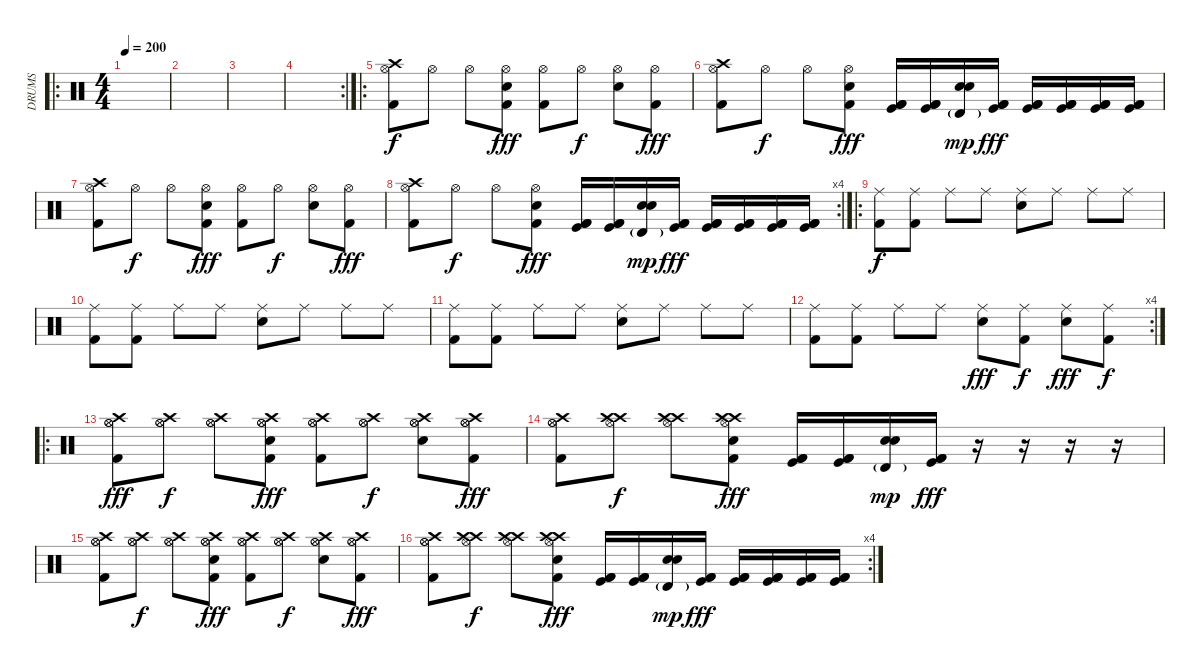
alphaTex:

\track ("DRUMS" "DRUMS") {instrument percussion}
\staff {score}
\articulation defaults
\ro
\ts (4 4)
\tempo 200
\clef neutral
\ks c
|
|
|
\rc 2
|
\ro
("Hi-Hat (open)" "Crash high (hit)" "Kick (hit) 2").8 "Hi-Hat (open)".8{dy f} "Hi-Hat (open)".8 ("Hi-Hat (open)" "Electric Snare (hit)" "Kick (hit) 2").8{dy fff} ("Hi-Hat (open)" "Kick (hit) 2").8 "Hi-Hat (open)".8{dy f} ("Hi-Hat (open)" "Electric Snare (hit)").8 ("Hi-Hat (open)" "Kick (hit) 2").8{dy fff} |
("Hi-Hat (open)" "Crash high (hit)" "Kick (hit) 2").8 "Hi-Hat (open)".8{dy f} "Hi-Hat (open)".8 ("Hi-Hat (open)" "Electric Snare (hit)" "Kick (hit) 2").8{dy fff} ("Kick (hit)" "Kick (hit) 2" "Kick (hit) 2").16 ("Kick (hit)" "Kick (hit) 2" "Kick (hit) 2").16 ("Snare (hit) 2" "Timbale high (hit)"{g} "Electric Snare (hit)").16{dy mp} ("Kick (hit)" "Kick (hit) 2" "Kick (hit) 2").16{dy fff} ("Kick (hit)" "Kick (hit) 2" "Kick (hit) 2").16 ("Kick (hit)" "Kick (hit) 2" "Kick (hit) 2").16 ("Kick (hit)" "Kick (hit) 2" "Kick (hit) 2").16 ("Kick (hit)" "Kick (hit) 2" "Kick (hit) 2").16 |
("Hi-Hat (open)" "Crash high (hit)" "Kick (hit) 2").8 "Hi-Hat (open)".8{dy f} "Hi-Hat (open)".8 ("Hi-Hat (open)" "Electric Snare (hit)" "Kick (hit) 2").8{dy fff} ("Hi-Hat (open)" "Kick (hit) 2").8 "Hi-Hat (open)".8{dy f} ("Hi-Hat (open)" "Electric Snare (hit)").8 ("Hi-Hat (open)" "Kick (hit) 2").8{dy fff} |
\rc 4
("Hi-Hat (open)" "Crash high (hit)" "Kick (hit) 2").8 "Hi-Hat (open)".8{dy f} "Hi-Hat (open)".8 ("Hi-Hat (open)" "Electric Snare (hit)" "Kick (hit) 2").8{dy fff} ("Kick (hit)" "Kick (hit) 2" "Kick (hit) 2").16 ("Kick (hit)" "Kick (hit) 2" "Kick (hit) 2").16 ("Snare (hit) 2" "Timbale high (hit)"{g} "Electric Snare (hit)").16{dy mp} ("Kick (hit)" "Kick (hit) 2" "Kick (hit) 2").16{dy fff} ("Kick (hit)" "Kick (hit) 2" "Kick (hit) 2").16 ("Kick (hit)" "Kick (hit) 2" "Kick (hit) 2").16 ("Kick (hit)" "Kick (hit) 2" "Kick (hit) 2").16 ("Kick (hit)" "Kick (hit) 2" "Kick (hit) 2").16 |
\ro
("Ride (middle)" "Kick (hit) 2").8{dy f} ("Ride (middle)" "Kick (hit) 2").8 "Ride (middle)".8 "Ride (middle)".8 ("Ride (middle)" "Snare (hit) 2").8 "Ride (middle)".8 "Ride (middle)".8 "Ride (middle)".8 |
("Ride (middle)" "Kick (hit) 2").8 ("Ride (middle)" "Kick (hit) 2").8 "Ride (middle)".8 "Ride (middle)".8 ("Ride (middle)" "Snare (hit) 2").8 "Ride (middle)".8 "Ride (middle)".8 "Ride (middle)".8 |
("Ride (middle)" "Kick (hit) 2").8 ("Ride (middle)" "Kick (hit) 2").8 "Ride (middle)".8 "Ride (middle)".8 ("Ride (middle)" "Snare (hit) 2").8 "Ride (middle)".8 "Ride (middle)".8 "Ride (middle)".8 |
\rc 4
("Ride (middle)" "Kick (hit) 2").8 ("Ride (middle)" "Kick (hit) 2").8 "Ride (middle)".8 "Ride (middle)".8 ("Ride (middle)" "Snare (hit) 2").8{dy fff} ("Ride (middle)" "Kick (hit) 2").8{dy f} ("Ride (middle)" "Snare (hit) 2").8{dy fff} ("Ride (middle)" "Kick (hit) 2").8{dy f} |
\ro
("Hi-Hat (open)" "Crash high (hit)" "Hi-Hat (open)" "Kick (hit) 2").8{dy fff} ("Hi-Hat (open)" "Crash high (hit)" "Hi-Hat (open)").8{dy f} ("Hi-Hat (open)" "Crash high (hit)" "Hi-Hat (open)").8 ("Hi-Hat (open)" "Crash high (hit)" "Hi-Hat (open)" "Electric Snare (hit)" "Kick (hit) 2").8{dy fff} ("Hi-Hat (open)" "Crash high (hit)" "Hi-Hat (open)" "Kick (hit) 2").8 ("Hi-Hat (open)" "Crash high (hit)" "Hi-Hat (open)").8{dy f} ("Hi-Hat (open)" "Crash high (hit)" "Hi-Hat (open)" "Electric Snare (hit)").8 ("Hi-Hat (open)" "Crash high (hit)" "Hi-Hat (open)" "Kick (hit) 2").8{dy fff} |
("Hi-Hat (open)" "Crash high (hit)" "Hi-Hat (open)" "Kick (hit) 2").8 ("Hi-Hat (open)" "Crash high (hit)" "Crash high (hit)").8{dy f} ("Hi-Hat (open)" "Crash high (hit)" "Crash high (hit)").8 ("Hi-Hat (open)" "Crash high (hit)" "Crash high (hit)" "Electric Snare (hit)" "Kick (hit) 2").8{dy fff} ("Kick (hit)" "Kick (hit) 2" "Kick (hit) 2").16 ("Kick (hit)" "Kick (hit) 2" "Kick (hit) 2").16 ("Snare (hit) 2" "Timbale high (hit)"{g} "Electric Snare (hit)").16{dy mp} ("Kick (hit)" "Kick (hit) 2" "Kick (hit) 2").16{dy fff} r.16 r.16 r.16 r.16 |
("Hi-Hat (open)" "Crash high (hit)" "Hi-Hat (open)" "Kick (hit) 2").8 ("Hi-Hat (open)" "Crash high (hit)" "Hi-Hat (open)").8{dy f} ("Hi-Hat (open)" "Crash high (hit)" "Hi-Hat (open)").8 ("Hi-Hat (open)" "Crash high (hit)" "Hi-Hat (open)" "Electric Snare (hit)" "Kick (hit) 2").8{dy fff} ("Hi-Hat (open)" "Crash high (hit)" "Hi-Hat (open)" "Kick (hit) 2").8 ("Hi-Hat (open)" "Crash high (hit)" "Hi-Hat (open)").8{dy f} ("Hi-Hat (open)" "Crash high (hit)" "Hi-Hat (open)" "Electric Snare (hit)").8 ("Hi-Hat (open)" "Crash high (hit)" "Hi-Hat (open)" "Kick (hit) 2").8{dy fff} |
\rc 4
("Hi-Hat (open)" "Crash high (hit)" "Hi-Hat (open)" "Kick (hit) 2").8 ("Hi-Hat (open)" "Crash high (hit)" "Crash high (hit)").8{dy f} ("Hi-Hat (open)" "Crash high (hit)" "Crash high (hit)").8 ("Hi-Hat (open)" "Crash high (hit)" "Crash high (hit)" "Electric Snare (hit)" "Kick (hit) 2").8{dy fff} ("Kick (hit)" "Kick (hit) 2" "Kick (hit) 2").16 ("Kick (hit)" "Kick (hit) 2" "Kick (hit) 2").16 ("Snare (hit) 2" "Timbale high (hit)"{g} "Electric Snare (hit)").16{dy mp} ("Kick (hit)" "Kick (hit) 2" "Kick (hit) 2").16{dy fff} ("Kick (hit)" "Kick (hit) 2" "Kick (hit) 2").16 ("Kick (hit)" "Kick (hit) 2" "Kick (hit) 2").16 ("Kick (hit)" "Kick (hit) 2" "Kick (hit) 2").16 ("Kick (hit)" "Kick (hit) 2" "Kick (hit) 2").16
